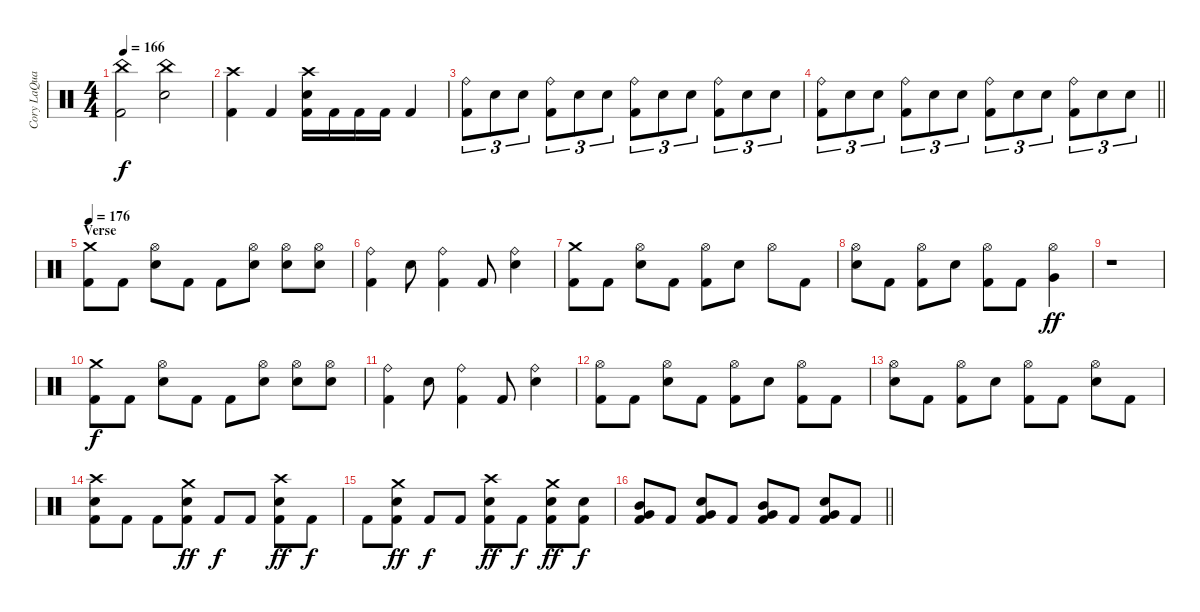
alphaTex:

\track ("Cory LaQuay" "Cory LaQua") {instrument percussion}
\staff {score}
\articulation defaults
\ts (4 4)
\tempo 166
\clef neutral
\ks c
("China (hit)" "Kick (hit) 2").2{dy f} ("China (hit)" "Snare (hit) 2").2 |
("Crash high (hit)" "Kick (hit) 2").4 "Kick (hit) 2".4 ("Crash high (hit)" "Snare (hit) 2" "Kick (hit) 2").16 "Kick (hit) 2".16 "Kick (hit) 2".16 "Kick (hit) 2".16 "Kick (hit) 2".4 |
("Ride (bell)" "Kick (hit) 2").8{tu (3 2)} "Snare (hit) 2".8{tu (3 2)} "Snare (hit) 2".8{tu (3 2)} ("Ride (bell)" "Kick (hit) 2").8{tu (3 2)} "Snare (hit) 2".8{tu (3 2)} "Snare (hit) 2".8{tu (3 2)} ("Ride (bell)" "Kick (hit) 2").8{tu (3 2)} "Snare (hit) 2".8{tu (3 2)} "Snare (hit) 2".8{tu (3 2)} ("Ride (bell)" "Kick (hit) 2").8{tu (3 2)} "Snare (hit) 2".8{tu (3 2)} "Snare (hit) 2".8{tu (3 2)} |
\barLineRight lightlight
("Ride (bell)" "Kick (hit) 2").8{tu (3 2)} "Snare (hit) 2".8{tu (3 2)} "Snare (hit) 2".8{tu (3 2)} ("Ride (bell)" "Kick (hit) 2").8{tu (3 2)} "Snare (hit) 2".8{tu (3 2)} "Snare (hit) 2".8{tu (3 2)} ("Ride (bell)" "Kick (hit) 2").8{tu (3 2)} "Snare (hit) 2".8{tu (3 2)} "Snare (hit) 2".8{tu (3 2)} ("Ride (bell)" "Kick (hit) 2").8{tu (3 2)} "Snare (hit) 2".8{tu (3 2)} "Snare (hit) 2".8{tu (3 2)} |
\section ("" "Verse")
\tempo 176
("Crash medium (hit)" "Kick (hit) 2").8 "Kick (hit) 2".8 ("Hi-Hat (open)" "Snare (hit) 2").8 "Kick (hit) 2".8 "Kick (hit) 2".8 ("Hi-Hat (open)" "Snare (hit) 2").8 ("Hi-Hat (open)" "Snare (hit) 2").8 ("Hi-Hat (open)" "Snare (hit) 2").8 |
("Ride (bell)" "Kick (hit) 2").4 "Snare (hit) 2".8 ("Ride (bell)" "Kick (hit) 2").4 "Kick (hit) 2".8 ("Ride (bell)" "Snare (hit) 2").4 |
("Crash medium (hit)" "Kick (hit) 2").8 "Kick (hit) 2".8 ("Hi-Hat (open)" "Snare (hit) 2").8 "Kick (hit) 2".8 ("Hi-Hat (open)" "Kick (hit) 2").8 "Snare (hit) 2".8 "Hi-Hat (open)".8 "Kick (hit) 2".8 |
("Hi-Hat (open)" "Snare (hit) 2").8 "Kick (hit) 2".8 ("Hi-Hat (open)" "Kick (hit) 2").8 "Snare (hit) 2".8 ("Hi-Hat (open)" "Kick (hit) 2").8 "Kick (hit) 2".8 ("Hi-Hat (open)" "Very Low Tom (hit)").4{dy ff} |
r.1 |
("Crash medium (hit)" "Kick (hit) 2").8{dy f} "Kick (hit) 2".8 ("Hi-Hat (open)" "Snare (hit) 2").8 "Kick (hit) 2".8 "Kick (hit) 2".8 ("Hi-Hat (open)" "Snare (hit) 2").8 ("Hi-Hat (open)" "Snare (hit) 2").8 ("Hi-Hat (open)" "Snare (hit) 2").8 |
("Ride (bell)" "Kick (hit) 2").4 "Snare (hit) 2".8 ("Ride (bell)" "Kick (hit) 2").4 "Kick (hit) 2".8 ("Ride (bell)" "Snare (hit) 2").4 |
("Hi-Hat (open)" "Kick (hit) 2").8 "Kick (hit) 2".8 ("Hi-Hat (open)" "Snare (hit) 2").8 "Kick (hit) 2".8 ("Hi-Hat (open)" "Kick (hit) 2").8 "Snare (hit) 2".8 ("Hi-Hat (open)" "Kick (hit) 2").8 "Kick (hit) 2".8 |
("Hi-Hat (open)" "Snare (hit) 2").8 "Kick (hit) 2".8 ("Hi-Hat (open)" "Kick (hit) 2").8 "Snare (hit) 2".8 ("Hi-Hat (open)" "Kick (hit) 2").8 "Kick (hit) 2".8 ("Hi-Hat (open)" "Snare (hit) 2").8 "Kick (hit) 2".8 |
("Crash high (hit)" "Snare (hit) 2" "Kick (hit) 2").8 "Kick (hit) 2".8 "Kick (hit) 2".8 ("Crash medium (hit)" "Snare (hit) 2" "Kick (hit) 2").8{dy ff} "Kick (hit) 2".8{dy f} "Kick (hit) 2".8 ("Crash high (hit)" "Snare (hit) 2" "Kick (hit) 2").8{dy ff} "Kick (hit) 2".8{dy f} |
"Kick (hit) 2".8 ("Crash medium (hit)" "Snare (hit) 2" "Kick (hit) 2").8{dy ff} "Kick (hit) 2".8{dy f} "Kick (hit) 2".8 ("Crash high (hit)" "Snare (hit) 2" "Kick (hit) 2").8{dy ff} "Kick (hit) 2".8{dy f} ("Crash medium (hit)" "Snare (hit) 2" "Kick (hit) 2").8{dy ff} ("Snare (hit) 2" "Kick (hit) 2").8{dy f} |
\barLineRight lightlight
("Mid Tom (hit)" "Very Low Tom (hit)" "Kick (hit) 2").8 "Kick (hit) 2".8 ("Very Low Tom (hit)" "Snare (hit) 2" "Kick (hit) 2").8 "Kick (hit) 2".8 ("Mid Tom (hit)" "Very Low Tom (hit)" "Kick (hit) 2").8 "Kick (hit) 2".8 ("Very Low Tom (hit)" "Snare (hit) 2" "Kick (hit) 2").8 "Kick (hit) 2".8
